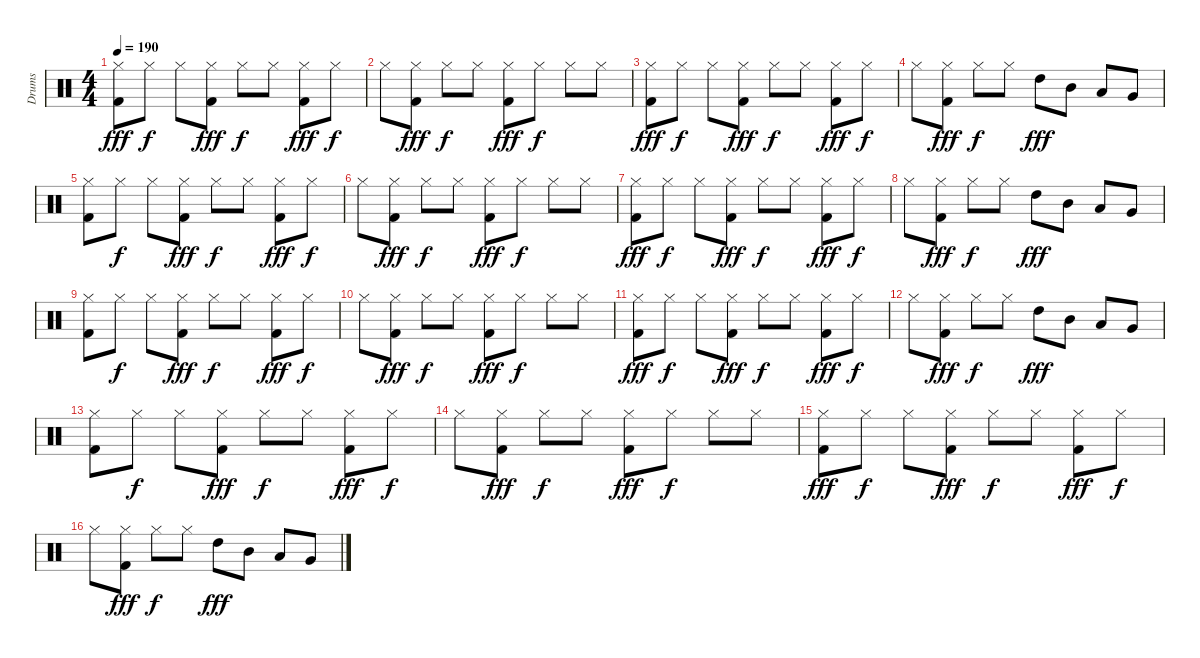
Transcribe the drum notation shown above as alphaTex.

\track ("Drums" "Drums") {instrument percussion}
\staff {score}
\articulation defaults
\ts (4 4)
\tempo 190
\clef neutral
\ks c
("Hi-Hat (closed)" "Kick (hit) 2").8{dy fff} "Hi-Hat (closed)".8{dy f} "Hi-Hat (closed)".8 ("Hi-Hat (closed)" "Kick (hit) 2").8{dy fff} "Hi-Hat (closed)".8{dy f} "Hi-Hat (closed)".8 ("Hi-Hat (closed)" "Kick (hit) 2").8{dy fff} "Hi-Hat (closed)".8{dy f} |
"Hi-Hat (closed)".8 ("Hi-Hat (closed)" "Kick (hit) 2").8{dy fff} "Hi-Hat (closed)".8{dy f} "Hi-Hat (closed)".8 ("Hi-Hat (closed)" "Kick (hit) 2").8{dy fff} "Hi-Hat (closed)".8{dy f} "Hi-Hat (closed)".8 "Hi-Hat (closed)".8 |
("Hi-Hat (closed)" "Kick (hit) 2").8{dy fff} "Hi-Hat (closed)".8{dy f} "Hi-Hat (closed)".8 ("Hi-Hat (closed)" "Kick (hit) 2").8{dy fff} "Hi-Hat (closed)".8{dy f} "Hi-Hat (closed)".8 ("Hi-Hat (closed)" "Kick (hit) 2").8{dy fff} "Hi-Hat (closed)".8{dy f} |
"Hi-Hat (closed)".8 ("Hi-Hat (closed)" "Kick (hit) 2").8{dy fff} "Hi-Hat (closed)".8{dy f} "Hi-Hat (closed)".8 "High Tom (hit)".8{dy fff} "Mid Tom (hit)".8 "Low Tom (hit)".8 "Very Low Tom (hit)".8 |
("Hi-Hat (closed)" "Kick (hit) 2").8 "Hi-Hat (closed)".8{dy f} "Hi-Hat (closed)".8 ("Hi-Hat (closed)" "Kick (hit) 2").8{dy fff} "Hi-Hat (closed)".8{dy f} "Hi-Hat (closed)".8 ("Hi-Hat (closed)" "Kick (hit) 2").8{dy fff} "Hi-Hat (closed)".8{dy f} |
"Hi-Hat (closed)".8 ("Hi-Hat (closed)" "Kick (hit) 2").8{dy fff} "Hi-Hat (closed)".8{dy f} "Hi-Hat (closed)".8 ("Hi-Hat (closed)" "Kick (hit) 2").8{dy fff} "Hi-Hat (closed)".8{dy f} "Hi-Hat (closed)".8 "Hi-Hat (closed)".8 |
("Hi-Hat (closed)" "Kick (hit) 2").8{dy fff} "Hi-Hat (closed)".8{dy f} "Hi-Hat (closed)".8 ("Hi-Hat (closed)" "Kick (hit) 2").8{dy fff} "Hi-Hat (closed)".8{dy f} "Hi-Hat (closed)".8 ("Hi-Hat (closed)" "Kick (hit) 2").8{dy fff} "Hi-Hat (closed)".8{dy f} |
"Hi-Hat (closed)".8 ("Hi-Hat (closed)" "Kick (hit) 2").8{dy fff} "Hi-Hat (closed)".8{dy f} "Hi-Hat (closed)".8 "High Tom (hit)".8{dy fff} "Mid Tom (hit)".8 "Low Tom (hit)".8 "Very Low Tom (hit)".8 |
("Hi-Hat (closed)" "Kick (hit) 2").8 "Hi-Hat (closed)".8{dy f} "Hi-Hat (closed)".8 ("Hi-Hat (closed)" "Kick (hit) 2").8{dy fff} "Hi-Hat (closed)".8{dy f} "Hi-Hat (closed)".8 ("Hi-Hat (closed)" "Kick (hit) 2").8{dy fff} "Hi-Hat (closed)".8{dy f} |
"Hi-Hat (closed)".8 ("Hi-Hat (closed)" "Kick (hit) 2").8{dy fff} "Hi-Hat (closed)".8{dy f} "Hi-Hat (closed)".8 ("Hi-Hat (closed)" "Kick (hit) 2").8{dy fff} "Hi-Hat (closed)".8{dy f} "Hi-Hat (closed)".8 "Hi-Hat (closed)".8 |
("Hi-Hat (closed)" "Kick (hit) 2").8{dy fff} "Hi-Hat (closed)".8{dy f} "Hi-Hat (closed)".8 ("Hi-Hat (closed)" "Kick (hit) 2").8{dy fff} "Hi-Hat (closed)".8{dy f} "Hi-Hat (closed)".8 ("Hi-Hat (closed)" "Kick (hit) 2").8{dy fff} "Hi-Hat (closed)".8{dy f} |
"Hi-Hat (closed)".8 ("Hi-Hat (closed)" "Kick (hit) 2").8{dy fff} "Hi-Hat (closed)".8{dy f} "Hi-Hat (closed)".8 "High Tom (hit)".8{dy fff} "Mid Tom (hit)".8 "Low Tom (hit)".8 "Very Low Tom (hit)".8 |
("Hi-Hat (closed)" "Kick (hit) 2").8 "Hi-Hat (closed)".8{dy f} "Hi-Hat (closed)".8 ("Hi-Hat (closed)" "Kick (hit) 2").8{dy fff} "Hi-Hat (closed)".8{dy f} "Hi-Hat (closed)".8 ("Hi-Hat (closed)" "Kick (hit) 2").8{dy fff} "Hi-Hat (closed)".8{dy f} |
"Hi-Hat (closed)".8 ("Hi-Hat (closed)" "Kick (hit) 2").8{dy fff} "Hi-Hat (closed)".8{dy f} "Hi-Hat (closed)".8 ("Hi-Hat (closed)" "Kick (hit) 2").8{dy fff} "Hi-Hat (closed)".8{dy f} "Hi-Hat (closed)".8 "Hi-Hat (closed)".8 |
("Hi-Hat (closed)" "Kick (hit) 2").8{dy fff} "Hi-Hat (closed)".8{dy f} "Hi-Hat (closed)".8 ("Hi-Hat (closed)" "Kick (hit) 2").8{dy fff} "Hi-Hat (closed)".8{dy f} "Hi-Hat (closed)".8 ("Hi-Hat (closed)" "Kick (hit) 2").8{dy fff} "Hi-Hat (closed)".8{dy f} |
"Hi-Hat (closed)".8 ("Hi-Hat (closed)" "Kick (hit) 2").8{dy fff} "Hi-Hat (closed)".8{dy f} "Hi-Hat (closed)".8 "High Tom (hit)".8{dy fff} "Mid Tom (hit)".8 "Low Tom (hit)".8 "Very Low Tom (hit)".8
